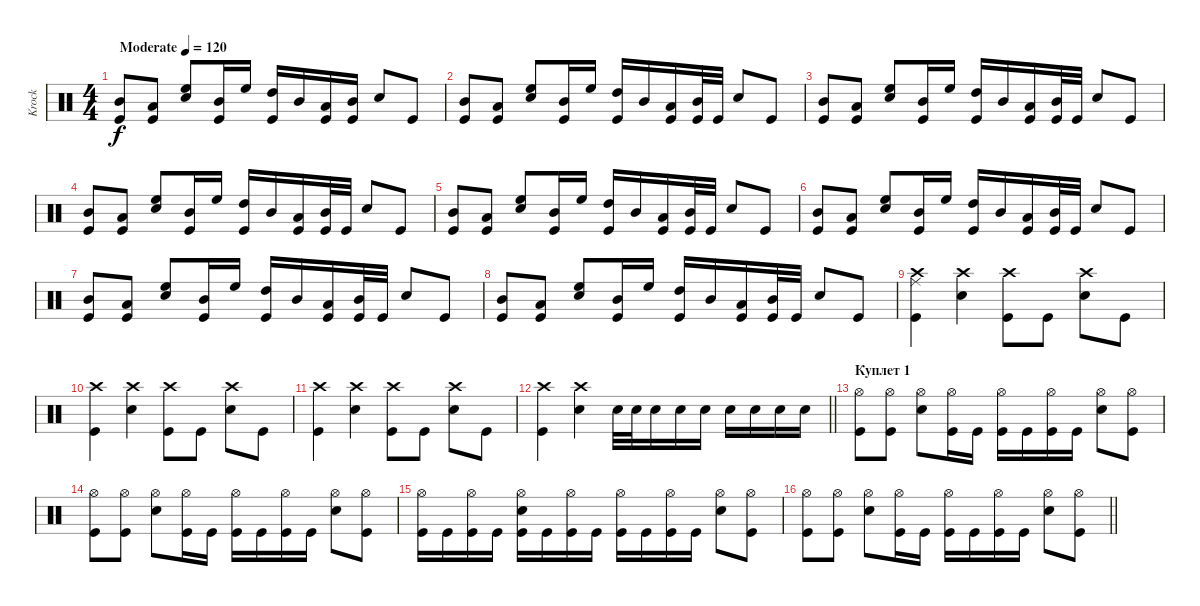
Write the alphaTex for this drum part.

\track ("Krock" "Krock") {instrument percussion}
\staff {score}
\articulation defaults
\ts (4 4)
\tempo (120 "Moderate")
\clef neutral
\ks c
("Mid Tom (hit)" "Kick (hit)").8{dy f} ("Low Tom (hit)" "Kick (hit)").8 ("High Floor Tom (hit)" "Snare (hit) 2").8 ("Mid Tom (hit)" "Kick (hit)").16 "High Floor Tom (hit)".16 ("High Tom (hit)" "Kick (hit)").16 "Mid Tom (hit)".16 ("Low Tom (hit)" "Kick (hit)").16 ("Mid Tom (hit)" "Kick (hit)").16 "Snare (hit) 2".8 "Kick (hit)".8 |
("Mid Tom (hit)" "Kick (hit)").8 ("Low Tom (hit)" "Kick (hit)").8 ("High Floor Tom (hit)" "Snare (hit) 2").8 ("Mid Tom (hit)" "Kick (hit)").16 "High Floor Tom (hit)".16 ("High Tom (hit)" "Kick (hit)").16 "Mid Tom (hit)".16 ("Low Tom (hit)" "Kick (hit)").16 ("Mid Tom (hit)" "Kick (hit)").32 "Kick (hit)".32 "Snare (hit) 2".8 "Kick (hit)".8 |
("Mid Tom (hit)" "Kick (hit)").8 ("Low Tom (hit)" "Kick (hit)").8 ("High Floor Tom (hit)" "Snare (hit) 2").8 ("Mid Tom (hit)" "Kick (hit)").16 "High Floor Tom (hit)".16 ("High Tom (hit)" "Kick (hit)").16 "Mid Tom (hit)".16 ("Low Tom (hit)" "Kick (hit)").16 ("Mid Tom (hit)" "Kick (hit)").32 "Kick (hit)".32 "Snare (hit) 2".8 "Kick (hit)".8 |
("Mid Tom (hit)" "Kick (hit)").8 ("Low Tom (hit)" "Kick (hit)").8 ("High Floor Tom (hit)" "Snare (hit) 2").8 ("Mid Tom (hit)" "Kick (hit)").16 "High Floor Tom (hit)".16 ("High Tom (hit)" "Kick (hit)").16 "Mid Tom (hit)".16 ("Low Tom (hit)" "Kick (hit)").16 ("Mid Tom (hit)" "Kick (hit)").32 "Kick (hit)".32 "Snare (hit) 2".8 "Kick (hit)".8 |
("Mid Tom (hit)" "Kick (hit)").8 ("Low Tom (hit)" "Kick (hit)").8 ("High Floor Tom (hit)" "Snare (hit) 2").8 ("Mid Tom (hit)" "Kick (hit)").16 "High Floor Tom (hit)".16 ("High Tom (hit)" "Kick (hit)").16 "Mid Tom (hit)".16 ("Low Tom (hit)" "Kick (hit)").16 ("Mid Tom (hit)" "Kick (hit)").32 "Kick (hit)".32 "Snare (hit) 2".8 "Kick (hit)".8 |
("Mid Tom (hit)" "Kick (hit)").8 ("Low Tom (hit)" "Kick (hit)").8 ("High Floor Tom (hit)" "Snare (hit) 2").8 ("Mid Tom (hit)" "Kick (hit)").16 "High Floor Tom (hit)".16 ("High Tom (hit)" "Kick (hit)").16 "Mid Tom (hit)".16 ("Low Tom (hit)" "Kick (hit)").16 ("Mid Tom (hit)" "Kick (hit)").32 "Kick (hit)".32 "Snare (hit) 2".8 "Kick (hit)".8 |
("Mid Tom (hit)" "Kick (hit)").8 ("Low Tom (hit)" "Kick (hit)").8 ("High Floor Tom (hit)" "Snare (hit) 2").8 ("Mid Tom (hit)" "Kick (hit)").16 "High Floor Tom (hit)".16 ("High Tom (hit)" "Kick (hit)").16 "Mid Tom (hit)".16 ("Low Tom (hit)" "Kick (hit)").16 ("Mid Tom (hit)" "Kick (hit)").32 "Kick (hit)".32 "Snare (hit) 2".8 "Kick (hit)".8 |
("Mid Tom (hit)" "Kick (hit)").8 ("Low Tom (hit)" "Kick (hit)").8 ("High Floor Tom (hit)" "Snare (hit) 2").8 ("Mid Tom (hit)" "Kick (hit)").16 "High Floor Tom (hit)".16 ("High Tom (hit)" "Kick (hit)").16 "Mid Tom (hit)".16 ("Low Tom (hit)" "Kick (hit)").16 ("Mid Tom (hit)" "Kick (hit)").32 "Kick (hit)".32 "Snare (hit) 2".8 "Kick (hit)".8 |
("Ride (middle)" "Crash high (hit)" "Kick (hit)").4 ("Crash high (hit)" "Snare (hit) 2").4 ("Crash high (hit)" "Kick (hit)").8 "Kick (hit)".8 ("Crash high (hit)" "Snare (hit) 2").8 "Kick (hit)".8 |
("Crash high (hit)" "Kick (hit)").4 ("Crash high (hit)" "Snare (hit) 2").4 ("Crash high (hit)" "Kick (hit)").8 "Kick (hit)".8 ("Crash high (hit)" "Snare (hit) 2").8 "Kick (hit)".8 |
("Crash high (hit)" "Kick (hit)").4 ("Crash high (hit)" "Snare (hit) 2").4 ("Crash high (hit)" "Kick (hit)").8 "Kick (hit)".8 ("Crash high (hit)" "Snare (hit) 2").8 "Kick (hit)".8 |
\barLineRight lightlight
("Crash high (hit)" "Kick (hit)").4 ("Crash high (hit)" "Snare (hit) 2").4 "Snare (hit) 2".32 "Snare (hit) 2".32 "Snare (hit) 2".16 "Snare (hit) 2".16 "Snare (hit) 2".16 "Snare (hit) 2".16 "Snare (hit) 2".16 "Snare (hit) 2".16 "Snare (hit) 2".16 |
\section ("" "Куплет 1")
("Hi-Hat (open)" "Kick (hit)").8 ("Hi-Hat (open)" "Kick (hit)").8 ("Hi-Hat (open)" "Snare (hit) 2").8 ("Hi-Hat (open)" "Kick (hit)").16 "Kick (hit)".16 ("Hi-Hat (open)" "Kick (hit)").16 "Kick (hit)".16 ("Hi-Hat (open)" "Kick (hit)").16 "Kick (hit)".16 ("Hi-Hat (open)" "Snare (hit) 2").8 ("Hi-Hat (open)" "Kick (hit)").8 |
("Hi-Hat (open)" "Kick (hit)").8 ("Hi-Hat (open)" "Kick (hit)").8 ("Hi-Hat (open)" "Snare (hit) 2").8 ("Hi-Hat (open)" "Kick (hit)").16 "Kick (hit)".16 ("Hi-Hat (open)" "Kick (hit)").16 "Kick (hit)".16 ("Hi-Hat (open)" "Kick (hit)").16 "Kick (hit)".16 ("Hi-Hat (open)" "Snare (hit) 2").8 ("Hi-Hat (open)" "Kick (hit)").8 |
("Hi-Hat (open)" "Kick (hit)").16 "Kick (hit)".16 ("Hi-Hat (open)" "Kick (hit)").16 "Kick (hit)".16 ("Hi-Hat (open)" "Snare (hit) 2" "Kick (hit)").16 "Kick (hit)".16 ("Hi-Hat (open)" "Kick (hit)").16 "Kick (hit)".16 ("Hi-Hat (open)" "Kick (hit)").16 "Kick (hit)".16 ("Hi-Hat (open)" "Kick (hit)").16 "Kick (hit)".16 ("Hi-Hat (open)" "Snare (hit) 2").8 ("Hi-Hat (open)" "Kick (hit)").8 |
\barLineRight lightlight
("Hi-Hat (open)" "Kick (hit)").8 ("Hi-Hat (open)" "Kick (hit)").8 ("Hi-Hat (open)" "Snare (hit) 2").8 ("Hi-Hat (open)" "Kick (hit)").16 "Kick (hit)".16 ("Hi-Hat (open)" "Kick (hit)").16 "Kick (hit)".16 ("Hi-Hat (open)" "Kick (hit)").16 "Kick (hit)".16 ("Hi-Hat (open)" "Snare (hit) 2").8 ("Hi-Hat (open)" "Kick (hit)").8
